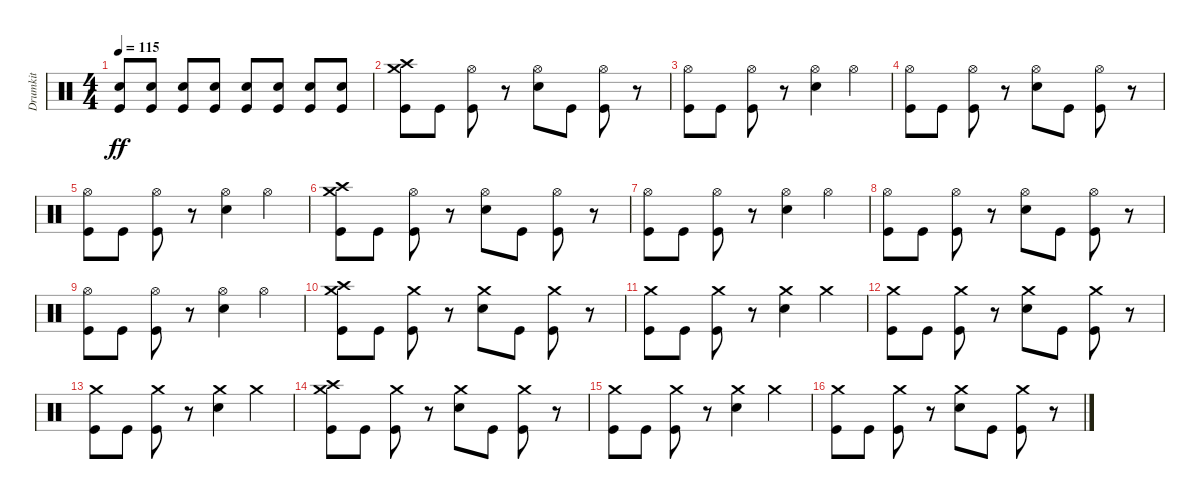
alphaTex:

\track ("Drumkit" "Drumkit") {instrument percussion}
\staff {score}
\articulation defaults
\ts (4 4)
\tempo 115
\clef neutral
\ks c
("Kick (hit)" "Snare (hit) 2").8{dy ff} ("Kick (hit)" "Snare (hit) 2").8 ("Kick (hit)" "Snare (hit) 2").8 ("Kick (hit)" "Snare (hit) 2").8 ("Kick (hit)" "Snare (hit) 2").8 ("Kick (hit)" "Snare (hit) 2").8 ("Kick (hit)" "Snare (hit) 2").8 ("Kick (hit)" "Snare (hit) 2").8 |
("Kick (hit)" "Crash high (hit)" "Crash medium (hit)").8 "Kick (hit)".8 ("Kick (hit)" "Hi-Hat (open)").8 r.8 ("Snare (hit) 2" "Hi-Hat (open)").8 "Kick (hit)".8 ("Kick (hit)" "Hi-Hat (open)").8 r.8 |
("Kick (hit)" "Hi-Hat (open)").8 "Kick (hit)".8 ("Kick (hit)" "Hi-Hat (open)").8 r.8 ("Snare (hit) 2" "Hi-Hat (open)").4 "Hi-Hat (open)".4 |
("Kick (hit)" "Hi-Hat (open)").8 "Kick (hit)".8 ("Kick (hit)" "Hi-Hat (open)").8 r.8 ("Snare (hit) 2" "Hi-Hat (open)").8 "Kick (hit)".8 ("Kick (hit)" "Hi-Hat (open)").8 r.8 |
("Kick (hit)" "Hi-Hat (open)").8 "Kick (hit)".8 ("Kick (hit)" "Hi-Hat (open)").8 r.8 ("Snare (hit) 2" "Hi-Hat (open)").4 "Hi-Hat (open)".4 |
("Kick (hit)" "Crash high (hit)" "Crash medium (hit)").8 "Kick (hit)".8 ("Kick (hit)" "Hi-Hat (open)").8 r.8 ("Snare (hit) 2" "Hi-Hat (open)").8 "Kick (hit)".8 ("Kick (hit)" "Hi-Hat (open)").8 r.8 |
("Kick (hit)" "Hi-Hat (open)").8 "Kick (hit)".8 ("Kick (hit)" "Hi-Hat (open)").8 r.8 ("Snare (hit) 2" "Hi-Hat (open)").4 "Hi-Hat (open)".4 |
("Kick (hit)" "Hi-Hat (open)").8 "Kick (hit)".8 ("Kick (hit)" "Hi-Hat (open)").8 r.8 ("Snare (hit) 2" "Hi-Hat (open)").8 "Kick (hit)".8 ("Kick (hit)" "Hi-Hat (open)").8 r.8 |
("Kick (hit)" "Hi-Hat (open)").8 "Kick (hit)".8 ("Kick (hit)" "Hi-Hat (open)").8 r.8 ("Snare (hit) 2" "Hi-Hat (open)").4 "Hi-Hat (open)".4 |
("Kick (hit)" "Crash high (hit)" "Crash medium (hit)").8 "Kick (hit)".8 ("Kick (hit)" "Crash medium (hit)").8 r.8 ("Snare (hit) 2" "Crash medium (hit)").8 "Kick (hit)".8 ("Kick (hit)" "Crash medium (hit)").8 r.8 |
("Kick (hit)" "Crash medium (hit)").8 "Kick (hit)".8 ("Kick (hit)" "Crash medium (hit)").8 r.8 ("Snare (hit) 2" "Crash medium (hit)").4 "Crash medium (hit)".4 |
("Kick (hit)" "Crash medium (hit)").8 "Kick (hit)".8 ("Kick (hit)" "Crash medium (hit)").8 r.8 ("Snare (hit) 2" "Crash medium (hit)").8 "Kick (hit)".8 ("Kick (hit)" "Crash medium (hit)").8 r.8 |
("Kick (hit)" "Crash medium (hit)").8 "Kick (hit)".8 ("Kick (hit)" "Crash medium (hit)").8 r.8 ("Snare (hit) 2" "Crash medium (hit)").4 "Crash medium (hit)".4 |
("Kick (hit)" "Crash high (hit)" "Crash medium (hit)").8 "Kick (hit)".8 ("Kick (hit)" "Crash medium (hit)").8 r.8 ("Snare (hit) 2" "Crash medium (hit)").8 "Kick (hit)".8 ("Kick (hit)" "Crash medium (hit)").8 r.8 |
("Kick (hit)" "Crash medium (hit)").8 "Kick (hit)".8 ("Kick (hit)" "Crash medium (hit)").8 r.8 ("Snare (hit) 2" "Crash medium (hit)").4 "Crash medium (hit)".4 |
("Kick (hit)" "Crash medium (hit)").8 "Kick (hit)".8 ("Kick (hit)" "Crash medium (hit)").8 r.8 ("Snare (hit) 2" "Crash medium (hit)").8 "Kick (hit)".8 ("Kick (hit)" "Crash medium (hit)").8 r.8
